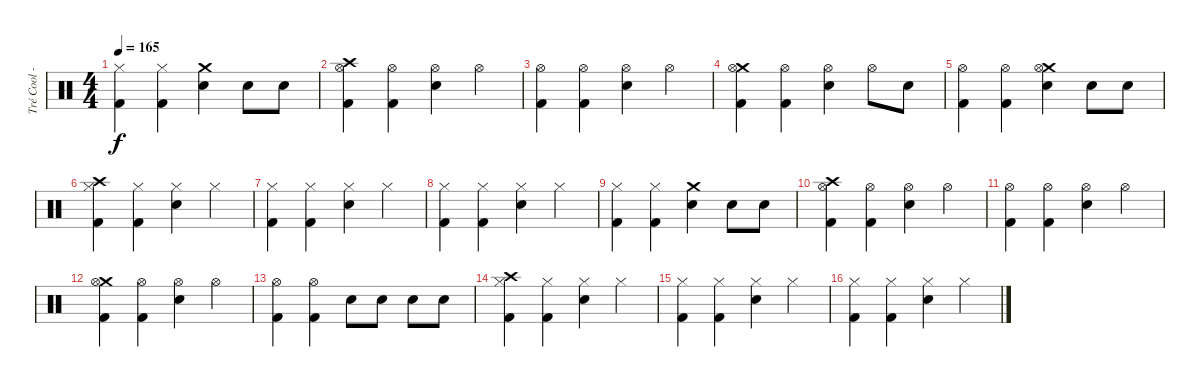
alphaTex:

\track ("Tré Cool - Drums" "Tré Cool -") {instrument percussion}
\staff {score}
\articulation defaults
\ts (4 4)
\tempo 165
\clef neutral
\ks c
("Hi-Hat (closed)" "Kick (hit) 2").4{dy f} ("Hi-Hat (closed)" "Kick (hit) 2").4 ("Crash medium (hit)" "Electric Snare (hit)").4 "Electric Snare (hit)".8 "Electric Snare (hit)".8 |
("Crash high (hit)" "Hi-Hat (open)" "Kick (hit) 2").4 ("Hi-Hat (open)" "Kick (hit) 2").4 ("Hi-Hat (open)" "Electric Snare (hit)").4 "Hi-Hat (open)".4 |
("Hi-Hat (open)" "Kick (hit) 2").4 ("Hi-Hat (open)" "Kick (hit) 2").4 ("Hi-Hat (open)" "Electric Snare (hit)").4 "Hi-Hat (open)".4 |
("Crash medium (hit)" "Hi-Hat (open)" "Kick (hit) 2").4 ("Hi-Hat (open)" "Kick (hit) 2").4 ("Hi-Hat (open)" "Electric Snare (hit)").4 "Hi-Hat (open)".8 "Electric Snare (hit)".8 |
("Hi-Hat (open)" "Kick (hit) 2").4 ("Hi-Hat (open)" "Kick (hit) 2").4 ("Crash medium (hit)" "Hi-Hat (open)" "Electric Snare (hit)").4 "Electric Snare (hit)".8 "Electric Snare (hit)".8 |
("Crash high (hit)" "Hi-Hat (closed)" "Kick (hit) 2").4 ("Hi-Hat (closed)" "Kick (hit) 2").4 ("Hi-Hat (closed)" "Electric Snare (hit)").4 "Hi-Hat (closed)".4 |
("Hi-Hat (closed)" "Kick (hit) 2").4 ("Hi-Hat (closed)" "Kick (hit) 2").4 ("Hi-Hat (closed)" "Electric Snare (hit)").4 "Hi-Hat (closed)".4 |
("Hi-Hat (closed)" "Kick (hit) 2").4 ("Hi-Hat (closed)" "Kick (hit) 2").4 ("Hi-Hat (closed)" "Electric Snare (hit)").4 "Hi-Hat (closed)".4 |
("Hi-Hat (closed)" "Kick (hit) 2").4 ("Hi-Hat (closed)" "Kick (hit) 2").4 ("Crash medium (hit)" "Electric Snare (hit)").4 "Electric Snare (hit)".8 "Electric Snare (hit)".8 |
("Crash high (hit)" "Hi-Hat (open)" "Kick (hit) 2").4 ("Hi-Hat (open)" "Kick (hit) 2").4 ("Hi-Hat (open)" "Electric Snare (hit)").4 "Hi-Hat (open)".4 |
("Hi-Hat (open)" "Kick (hit) 2").4 ("Hi-Hat (open)" "Kick (hit) 2").4 ("Hi-Hat (open)" "Electric Snare (hit)").4 "Hi-Hat (open)".4 |
("Crash medium (hit)" "Hi-Hat (open)" "Kick (hit) 2").4 ("Hi-Hat (open)" "Kick (hit) 2").4 ("Hi-Hat (open)" "Electric Snare (hit)").4 "Hi-Hat (open)".4 |
("Hi-Hat (open)" "Kick (hit) 2").4 ("Hi-Hat (open)" "Kick (hit) 2").4 "Electric Snare (hit)".8 "Electric Snare (hit)".8 "Electric Snare (hit)".8 "Electric Snare (hit)".8 |
("Crash high (hit)" "Hi-Hat (closed)" "Kick (hit) 2").4 ("Hi-Hat (closed)" "Kick (hit) 2").4 ("Hi-Hat (closed)" "Electric Snare (hit)").4 "Hi-Hat (closed)".4 |
("Hi-Hat (closed)" "Kick (hit) 2").4 ("Hi-Hat (closed)" "Kick (hit) 2").4 ("Hi-Hat (closed)" "Electric Snare (hit)").4 "Hi-Hat (closed)".4 |
("Hi-Hat (closed)" "Kick (hit) 2").4 ("Hi-Hat (closed)" "Kick (hit) 2").4 ("Hi-Hat (closed)" "Electric Snare (hit)").4 "Hi-Hat (closed)".4
